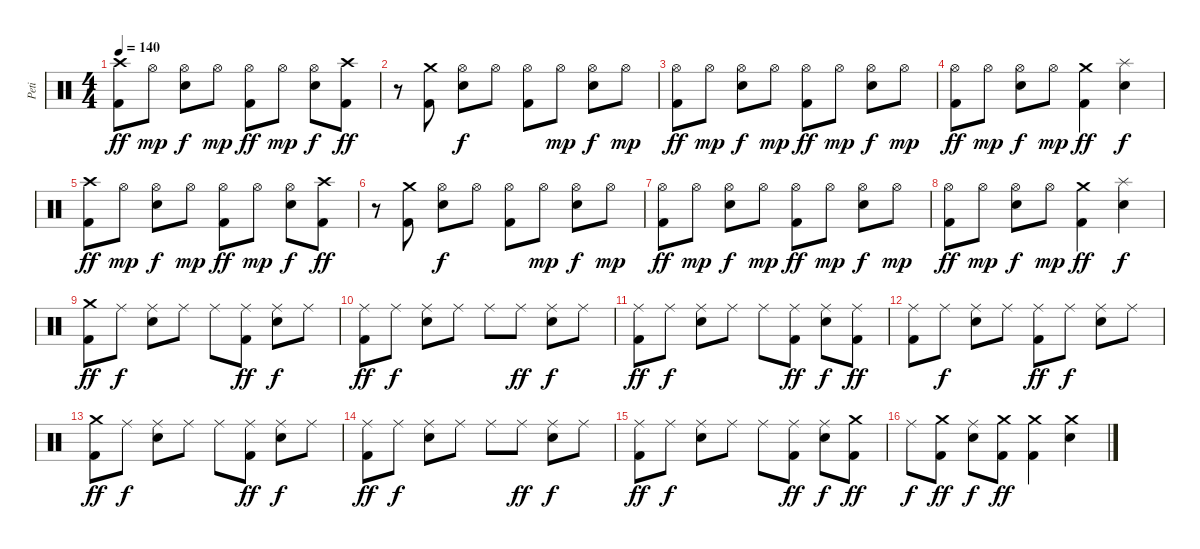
\track ("Peti" "Peti") {instrument percussion}
\staff {score}
\articulation defaults
\ts (4 4)
\tempo 140
\clef neutral
\ks c
("Crash high (hit)" "Kick (hit) 2").8{dy ff} "Hi-Hat (open)".8{dy mp} ("Hi-Hat (open)" "Snare (hit) 2").8{dy f} "Hi-Hat (open)".8{dy mp} ("Hi-Hat (open)" "Kick (hit) 2").8{dy ff} "Hi-Hat (open)".8{dy mp} ("Hi-Hat (open)" "Snare (hit) 2").8{dy f} ("Crash high (hit)" "Kick (hit) 2").8{dy ff} |
r.8 ("Crash medium (hit)" "Kick (hit) 2").8 ("Hi-Hat (open)" "Snare (hit) 2").8{dy f} "Hi-Hat (open)".8 ("Hi-Hat (open)" "Kick (hit) 2").8 "Hi-Hat (open)".8{dy mp} ("Hi-Hat (open)" "Snare (hit) 2").8{dy f} "Hi-Hat (open)".8{dy mp} |
("Hi-Hat (open)" "Kick (hit) 2").8{dy ff} "Hi-Hat (open)".8{dy mp} ("Hi-Hat (open)" "Snare (hit) 2").8{dy f} "Hi-Hat (open)".8{dy mp} ("Hi-Hat (open)" "Kick (hit) 2").8{dy ff} "Hi-Hat (open)".8{dy mp} ("Hi-Hat (open)" "Snare (hit) 2").8{dy f} "Hi-Hat (open)".8{dy mp} |
("Hi-Hat (open)" "Kick (hit) 2").8{dy ff} "Hi-Hat (open)".8{dy mp} ("Hi-Hat (open)" "Snare (hit) 2").8{dy f} "Hi-Hat (open)".8{dy mp} ("Crash medium (hit)" "Kick (hit) 2").4{dy ff} ("Splash (hit)" "Snare (hit) 2").4{dy f} |
("Crash high (hit)" "Kick (hit) 2").8{dy ff} "Hi-Hat (open)".8{dy mp} ("Hi-Hat (open)" "Snare (hit) 2").8{dy f} "Hi-Hat (open)".8{dy mp} ("Hi-Hat (open)" "Kick (hit) 2").8{dy ff} "Hi-Hat (open)".8{dy mp} ("Hi-Hat (open)" "Snare (hit) 2").8{dy f} ("Crash high (hit)" "Kick (hit) 2").8{dy ff} |
r.8 ("Crash medium (hit)" "Kick (hit) 2").8 ("Hi-Hat (open)" "Snare (hit) 2").8{dy f} "Hi-Hat (open)".8 ("Hi-Hat (open)" "Kick (hit) 2").8 "Hi-Hat (open)".8{dy mp} ("Hi-Hat (open)" "Snare (hit) 2").8{dy f} "Hi-Hat (open)".8{dy mp} |
("Hi-Hat (open)" "Kick (hit) 2").8{dy ff} "Hi-Hat (open)".8{dy mp} ("Hi-Hat (open)" "Snare (hit) 2").8{dy f} "Hi-Hat (open)".8{dy mp} ("Hi-Hat (open)" "Kick (hit) 2").8{dy ff} "Hi-Hat (open)".8{dy mp} ("Hi-Hat (open)" "Snare (hit) 2").8{dy f} "Hi-Hat (open)".8{dy mp} |
("Hi-Hat (open)" "Kick (hit) 2").8{dy ff} "Hi-Hat (open)".8{dy mp} ("Hi-Hat (open)" "Snare (hit) 2").8{dy f} "Hi-Hat (open)".8{dy mp} ("Crash medium (hit)" "Kick (hit) 2").4{dy ff} ("Splash (hit)" "Snare (hit) 2").4{dy f} |
("Crash medium (hit)" "Kick (hit) 2").8{dy ff} "Ride (middle)".8{dy f} ("Ride (middle)" "Snare (hit) 2").8 "Ride (middle)".8 "Ride (middle)".8 ("Ride (middle)" "Kick (hit) 2").8{dy ff} ("Ride (middle)" "Snare (hit) 2").8{dy f} "Ride (middle)".8 |
("Ride (middle)" "Kick (hit) 2").8{dy ff} "Ride (middle)".8{dy f} ("Ride (middle)" "Snare (hit) 2").8 "Ride (middle)".8 "Ride (middle)".8 "Ride (middle)".8{dy ff} ("Ride (middle)" "Snare (hit) 2").8{dy f} "Ride (middle)".8 |
("Ride (middle)" "Kick (hit) 2").8{dy ff} "Ride (middle)".8{dy f} ("Ride (middle)" "Snare (hit) 2").8 "Ride (middle)".8 "Ride (middle)".8 ("Ride (middle)" "Kick (hit) 2").8{dy ff} ("Ride (middle)" "Snare (hit) 2").8{dy f} ("Ride (middle)" "Kick (hit) 2").8{dy ff} |
("Ride (middle)" "Kick (hit) 2").8 "Ride (middle)".8{dy f} ("Ride (middle)" "Snare (hit) 2").8 "Ride (middle)".8 ("Ride (middle)" "Kick (hit) 2").8{dy ff} "Ride (middle)".8{dy f} ("Ride (middle)" "Snare (hit) 2").8 "Ride (middle)".8 |
("Crash medium (hit)" "Kick (hit) 2").8{dy ff} "Ride (middle)".8{dy f} ("Ride (middle)" "Snare (hit) 2").8 "Ride (middle)".8 "Ride (middle)".8 ("Ride (middle)" "Kick (hit) 2").8{dy ff} ("Ride (middle)" "Snare (hit) 2").8{dy f} "Ride (middle)".8 |
("Ride (middle)" "Kick (hit) 2").8{dy ff} "Ride (middle)".8{dy f} ("Ride (middle)" "Snare (hit) 2").8 "Ride (middle)".8 "Ride (middle)".8 "Ride (middle)".8{dy ff} ("Ride (middle)" "Snare (hit) 2").8{dy f} "Ride (middle)".8 |
("Ride (middle)" "Kick (hit) 2").8{dy ff} "Ride (middle)".8{dy f} ("Ride (middle)" "Snare (hit) 2").8 "Ride (middle)".8 "Ride (middle)".8 ("Ride (middle)" "Kick (hit) 2").8{dy ff} ("Ride (middle)" "Snare (hit) 2").8{dy f} ("Crash medium (hit)" "Kick (hit) 2").8{dy ff} |
"Ride (middle)".8{dy f} ("Crash medium (hit)" "Kick (hit) 2").8{dy ff} ("Ride (middle)" "Snare (hit) 2").8{dy f} ("Crash medium (hit)" "Kick (hit) 2").8{dy ff} ("Crash medium (hit)" "Kick (hit) 2").4 ("Crash medium (hit)" "Snare (hit) 2").4
